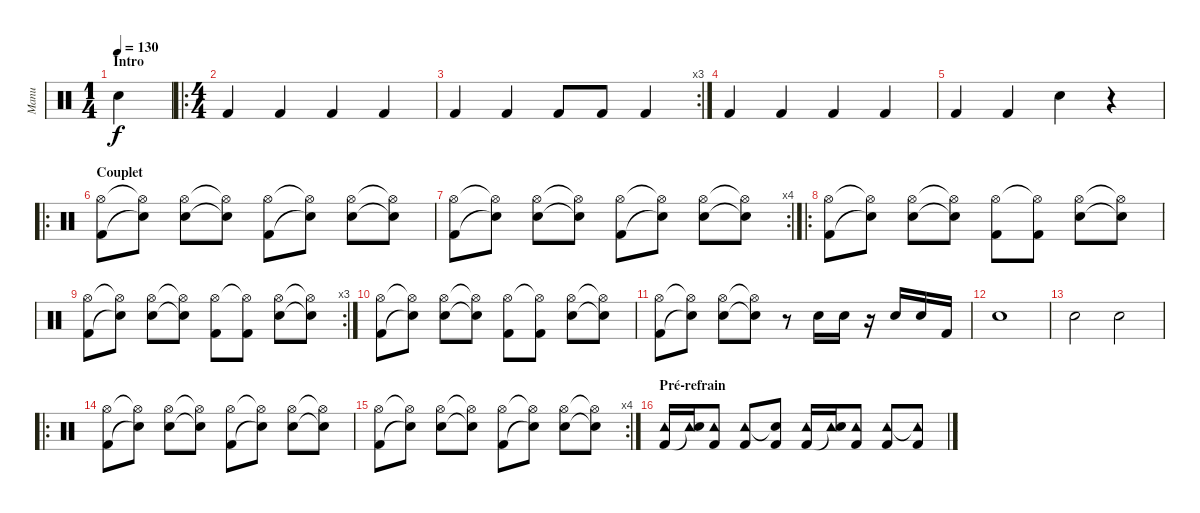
\track ("Manu" "Manu") {instrument percussion}
\staff {score}
\articulation defaults
\ts (1 4)
\section ("" "Intro")
\tempo 130
\clef neutral
\ks c "Snare (hit) 2".4{dy f}
|
\ro
\ts (4 4)
"Kick (hit) 2".4 "Kick (hit) 2".4 "Kick (hit) 2".4 "Kick (hit) 2".4 |
\rc 3 "Kick (hit) 2".4 "Kick (hit) 2".4 "Kick (hit) 2".8 "Kick (hit) 2".8 "Kick (hit) 2".4
|
"Kick (hit) 2".4 "Kick (hit) 2".4 "Kick (hit) 2".4 "Kick (hit) 2".4 |
"Kick (hit) 2".4 "Kick (hit) 2".4 "Snare (hit) 2".4 r.4 |
\ro
\section ("" "Couplet")
("Hi-Hat (open)" "Kick (hit) 2").8 ("Hi-Hat (open)"{t} "Snare (hit) 2"{t}).8 ("Hi-Hat (open)" "Electric Snare (hit)").8 ("Hi-Hat (open)"{t} "Snare (hit) 2"{t}).8 ("Hi-Hat (open)" "Kick (hit) 2").8 ("Hi-Hat (open)"{t} "Snare (hit)"{t}).8 ("Hi-Hat (open)" "Electric Snare (hit)").8 ("Hi-Hat (open)"{t} "Snare (hit)"{t}).8 |
\rc 4
("Hi-Hat (open)" "Kick (hit) 2").8 ("Hi-Hat (open)"{t} "Snare (hit) 2"{t}).8 ("Hi-Hat (open)" "Electric Snare (hit)").8 ("Hi-Hat (open)"{t} "Snare (hit) 2"{t}).8 ("Hi-Hat (open)" "Kick (hit) 2").8 ("Hi-Hat (open)"{t} "Snare (hit)"{t}).8 ("Hi-Hat (open)" "Electric Snare (hit)").8 ("Hi-Hat (open)"{t} "Snare (hit)"{t}).8 |
\ro
("Hi-Hat (open)" "Kick (hit) 2").8 ("Hi-Hat (open)"{t} "Snare (hit) 2"{t}).8 ("Hi-Hat (open)" "Snare (hit) 2").8 ("Hi-Hat (open)"{t} "Snare (hit) 2"{t}).8 ("Hi-Hat (open)" "Kick (hit) 2").8 ("Hi-Hat (open)"{t} "Kick (hit) 2").8 ("Hi-Hat (open)" "Snare (hit) 2").8 ("Hi-Hat (open)"{t} "Snare (hit)"{t}).8 |
\rc 3
("Hi-Hat (open)" "Kick (hit) 2").8 ("Hi-Hat (open)"{t} "Snare (hit) 2"{t}).8 ("Hi-Hat (open)" "Snare (hit) 2").8 ("Hi-Hat (open)"{t} "Snare (hit) 2"{t}).8 ("Hi-Hat (open)" "Kick (hit) 2").8 ("Hi-Hat (open)"{t} "Kick (hit) 2").8 ("Hi-Hat (open)" "Snare (hit) 2").8 ("Hi-Hat (open)"{t} "Snare (hit)"{t}).8 |
("Hi-Hat (open)" "Kick (hit) 2").8 ("Hi-Hat (open)"{t} "Snare (hit) 2"{t}).8 ("Hi-Hat (open)" "Snare (hit) 2").8 ("Hi-Hat (open)"{t} "Snare (hit) 2"{t}).8 ("Hi-Hat (open)" "Kick (hit) 2").8 ("Hi-Hat (open)"{t} "Kick (hit) 2").8 ("Hi-Hat (open)" "Snare (hit) 2").8 ("Hi-Hat (open)"{t} "Snare (hit)"{t}).8 |
("Hi-Hat (open)" "Kick (hit) 2").8 ("Hi-Hat (open)"{t} "Snare (hit) 2"{t}).8 ("Hi-Hat (open)" "Snare (hit) 2").8 ("Hi-Hat (open)"{t} "Snare (hit) 2"{t}).8 r.8 "Electric Snare (hit)".16 "Electric Snare (hit)".16 r.16 "Snare (hit) 2".16 "Snare (hit) 2".16 "Kick (hit) 2".16 |
"Snare (hit) 2".1 |
"Snare (hit) 2".2 "Snare (hit) 2".2 |
\ro
("Hi-Hat (open)" "Kick (hit) 2").8 ("Hi-Hat (open)"{t} "Snare (hit) 2"{t}).8 ("Hi-Hat (open)" "Electric Snare (hit)").8 ("Hi-Hat (open)"{t} "Snare (hit) 2"{t}).8 ("Hi-Hat (open)" "Kick (hit) 2").8 ("Hi-Hat (open)"{t} "Snare (hit)"{t}).8 ("Hi-Hat (open)" "Electric Snare (hit)").8 ("Hi-Hat (open)"{t} "Snare (hit)"{t}).8 |
\rc 4
("Hi-Hat (open)" "Kick (hit) 2").8 ("Hi-Hat (open)"{t} "Snare (hit) 2"{t}).8 ("Hi-Hat (open)" "Electric Snare (hit)").8 ("Hi-Hat (open)"{t} "Snare (hit) 2"{t}).8 ("Hi-Hat (open)" "Kick (hit) 2").8 ("Hi-Hat (open)"{t} "Snare (hit)"{t}).8 ("Hi-Hat (open)" "Electric Snare (hit)").8 ("Hi-Hat (open)"{t} "Snare (hit)"{t}).8 |
\section ("" "Pré-refrain")
("Tambourine (hit)" "Kick (hit) 2").16{volume 8} ("Tambourine (hit)" "Snare (hit)"{t}).16 ("Tambourine (hit)" "Kick (hit) 2").8 ("Tambourine (hit)" "Kick (hit) 2").8 ("Snare (hit)"{t} "Kick (hit) 2").8 ("Tambourine (hit)" "Kick (hit) 2").16 ("Tambourine (hit)" "Snare (hit)"{t}).16 ("Tambourine (hit)" "Kick (hit) 2").8 ("Tambourine (hit)" "Kick (hit) 2").8 ("Tambourine (hit)"{t} "Kick (hit) 2").8
